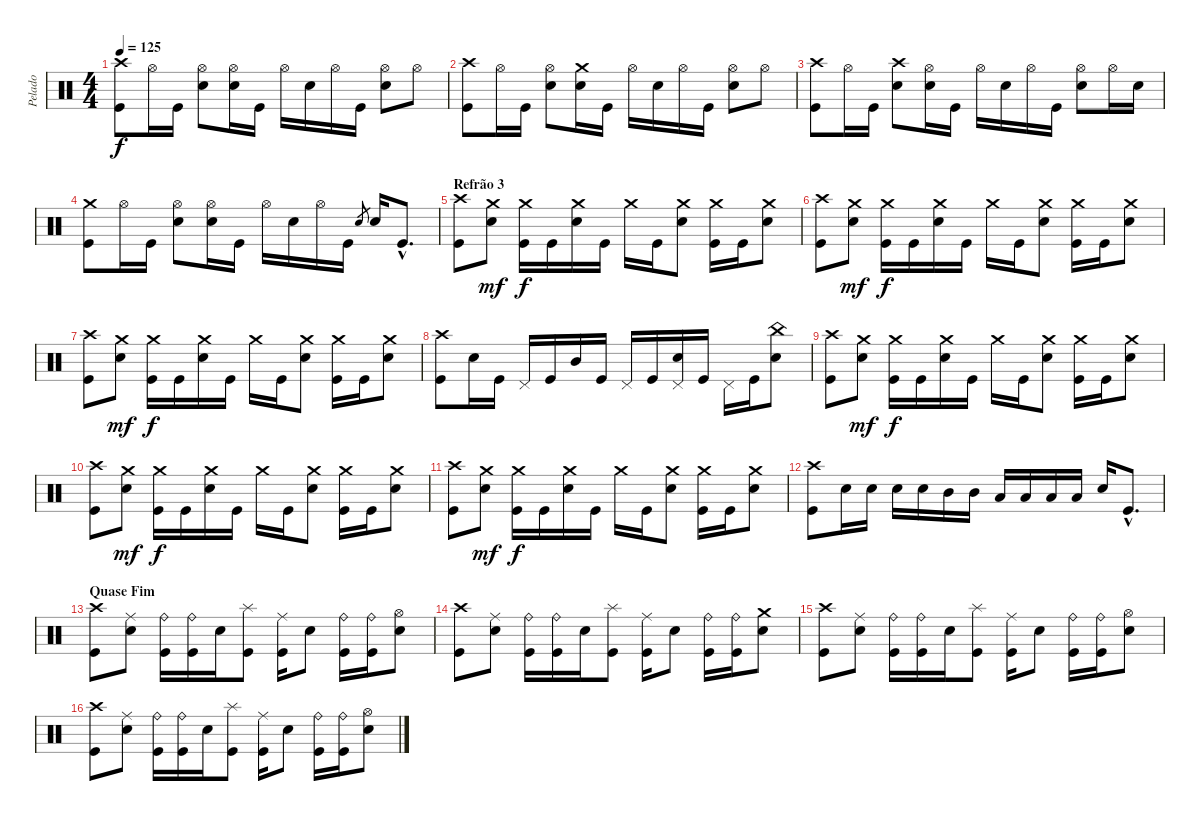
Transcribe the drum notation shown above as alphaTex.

\track ("Pelado" "Pelado") {instrument percussion}
\staff {score}
\articulation defaults
\ts (4 4)
\tempo 125
\clef neutral
\ks c
("Crash high (hit)" "Kick (hit)").8{dy f} "Hi-Hat (open)".16 "Kick (hit)".16 ("Hi-Hat (open)" "Electric Snare (hit)").8 ("Hi-Hat (open)" "Electric Snare (hit)").16 "Kick (hit)".16 "Hi-Hat (open)".16 "Electric Snare (hit)".16 "Hi-Hat (open)".16 "Kick (hit)".16 ("Hi-Hat (open)" "Electric Snare (hit)").8 "Hi-Hat (open)".8 |
("Crash high (hit)" "Kick (hit)").8 "Hi-Hat (open)".16 "Kick (hit)".16 ("Hi-Hat (open)" "Electric Snare (hit)").8 ("Crash medium (hit)" "Electric Snare (hit)").16 "Kick (hit)".16 "Hi-Hat (open)".16 "Electric Snare (hit)".16 "Hi-Hat (open)".16 "Kick (hit)".16 ("Hi-Hat (open)" "Electric Snare (hit)").8 "Hi-Hat (open)".8 |
("Crash high (hit)" "Kick (hit)").8 "Hi-Hat (open)".16 "Kick (hit)".16 ("Crash high (hit)" "Electric Snare (hit)").8 ("Hi-Hat (open)" "Electric Snare (hit)").16 "Kick (hit)".16 "Hi-Hat (open)".16 "Electric Snare (hit)".16 "Hi-Hat (open)".16 "Kick (hit)".16 ("Hi-Hat (open)" "Electric Snare (hit)").8 "Hi-Hat (open)".16 "Electric Snare (hit)".16 |
("Crash medium (hit)" "Kick (hit)").8 "Hi-Hat (open)".16 "Kick (hit)".16 ("Hi-Hat (open)" "Electric Snare (hit)").8 ("Hi-Hat (open)" "Electric Snare (hit)").16 "Kick (hit)".16 "Hi-Hat (open)".16 "Electric Snare (hit)".16 "Hi-Hat (open)".16 "Kick (hit)".16 "Electric Snare (hit)".8{gr} "Electric Snare (hit)".16 "Kick (hit)"{hac}.8{d} |
\section ("" "Refrão 3")
("Crash high (hit)" "Kick (hit)").8 ("Crash medium (hit)" "Electric Snare (hit)").8{dy mf} ("Crash medium (hit)" "Kick (hit)").16{dy f} "Kick (hit)".16 ("Crash medium (hit)" "Electric Snare (hit)").16 "Kick (hit)".16 "Crash medium (hit)".16 "Kick (hit)".16 ("Crash medium (hit)" "Electric Snare (hit)").8 ("Crash medium (hit)" "Kick (hit)").16 "Kick (hit)".16 ("Crash medium (hit)" "Electric Snare (hit)").8 |
("Crash high (hit)" "Kick (hit)").8 ("Crash medium (hit)" "Electric Snare (hit)").8{dy mf} ("Crash medium (hit)" "Kick (hit)").16{dy f} "Kick (hit)".16 ("Crash medium (hit)" "Electric Snare (hit)").16 "Kick (hit)".16 "Crash medium (hit)".16 "Kick (hit)".16 ("Crash medium (hit)" "Electric Snare (hit)").8 ("Crash medium (hit)" "Kick (hit)").16 "Kick (hit)".16 ("Crash medium (hit)" "Electric Snare (hit)").8 |
("Crash high (hit)" "Kick (hit)").8 ("Crash medium (hit)" "Electric Snare (hit)").8{dy mf} ("Crash medium (hit)" "Kick (hit)").16{dy f} "Kick (hit)".16 ("Crash medium (hit)" "Electric Snare (hit)").16 "Kick (hit)".16 "Crash medium (hit)".16 "Kick (hit)".16 ("Crash medium (hit)" "Electric Snare (hit)").8 ("Crash medium (hit)" "Kick (hit)").16 "Kick (hit)".16 ("Crash medium (hit)" "Electric Snare (hit)").8 |
("Crash high (hit)" "Kick (hit)").8 "Electric Snare (hit)".16 "Kick (hit)".16 "Pedal Hi-Hat (hit)".16 "Kick (hit)".16 "Mid Tom (hit)".16 "Kick (hit)".16 "Pedal Hi-Hat (hit)".16 "Kick (hit)".16 ("Electric Snare (hit)" "Pedal Hi-Hat (hit)").16 "Kick (hit)".16 "Pedal Hi-Hat (hit)".16 "Kick (hit)".16 ("China (hit)" "Electric Snare (hit)").8 |
("Crash high (hit)" "Kick (hit)").8 ("Crash medium (hit)" "Electric Snare (hit)").8{dy mf} ("Crash medium (hit)" "Kick (hit)").16{dy f} "Kick (hit)".16 ("Crash medium (hit)" "Electric Snare (hit)").16 "Kick (hit)".16 "Crash medium (hit)".16 "Kick (hit)".16 ("Crash medium (hit)" "Electric Snare (hit)").8 ("Crash medium (hit)" "Kick (hit)").16 "Kick (hit)".16 ("Crash medium (hit)" "Electric Snare (hit)").8 |
("Crash high (hit)" "Kick (hit)").8 ("Crash medium (hit)" "Electric Snare (hit)").8{dy mf} ("Crash medium (hit)" "Kick (hit)").16{dy f} "Kick (hit)".16 ("Crash medium (hit)" "Electric Snare (hit)").16 "Kick (hit)".16 "Crash medium (hit)".16 "Kick (hit)".16 ("Crash medium (hit)" "Electric Snare (hit)").8 ("Crash medium (hit)" "Kick (hit)").16 "Kick (hit)".16 ("Crash medium (hit)" "Electric Snare (hit)").8 |
("Crash high (hit)" "Kick (hit)").8 ("Crash medium (hit)" "Electric Snare (hit)").8{dy mf} ("Crash medium (hit)" "Kick (hit)").16{dy f} "Kick (hit)".16 ("Crash medium (hit)" "Electric Snare (hit)").16 "Kick (hit)".16 "Crash medium (hit)".16 "Kick (hit)".16 ("Crash medium (hit)" "Electric Snare (hit)").8 ("Crash medium (hit)" "Kick (hit)").16 "Kick (hit)".16 ("Crash medium (hit)" "Electric Snare (hit)").8 |
("Crash high (hit)" "Kick (hit)").8 "Electric Snare (hit)".16 "Electric Snare (hit)".16 "Electric Snare (hit)".16 "Electric Snare (hit)".16 "Mid Tom (hit)".16 "Mid Tom (hit)".16 "Low Tom (hit)".16 "Low Tom (hit)".16 "Low Tom (hit)".16 "Low Tom (hit)".16 "Electric Snare (hit)".16 "Kick (hit)"{hac}.8{d} |
\section ("" "Quase Fim")
("Crash high (hit)" "Kick (hit)").8 ("Ride (middle)" "Electric Snare (hit)").8 ("Ride (bell)" "Kick (hit)").16 ("Ride (bell)" "Kick (hit)").16 "Electric Snare (hit)".16 ("Splash (hit)" "Kick (hit)").8 ("Ride (middle)" "Kick (hit)").16 "Electric Snare (hit)".8 ("Ride (bell)" "Kick (hit)").16 ("Ride (bell)" "Kick (hit)").16 ("Hi-Hat (open)" "Electric Snare (hit)").8 |
("Crash high (hit)" "Kick (hit)").8 ("Ride (middle)" "Electric Snare (hit)").8 ("Ride (bell)" "Kick (hit)").16 ("Ride (bell)" "Kick (hit)").16 "Electric Snare (hit)".16 ("Splash (hit)" "Kick (hit)").8 ("Ride (middle)" "Kick (hit)").16 "Electric Snare (hit)".8 ("Ride (bell)" "Kick (hit)").16 ("Ride (bell)" "Kick (hit)").16 ("Crash medium (hit)" "Electric Snare (hit)").8 |
("Crash high (hit)" "Kick (hit)").8 ("Ride (middle)" "Electric Snare (hit)").8 ("Ride (bell)" "Kick (hit)").16 ("Ride (bell)" "Kick (hit)").16 "Electric Snare (hit)".16 ("Splash (hit)" "Kick (hit)").8 ("Ride (middle)" "Kick (hit)").16 "Electric Snare (hit)".8 ("Ride (bell)" "Kick (hit)").16 ("Ride (bell)" "Kick (hit)").16 ("Hi-Hat (open)" "Electric Snare (hit)").8 |
("Crash high (hit)" "Kick (hit)").8 ("Ride (middle)" "Electric Snare (hit)").8 ("Ride (bell)" "Kick (hit)").16 ("Ride (bell)" "Kick (hit)").16 "Electric Snare (hit)".16 ("Splash (hit)" "Kick (hit)").8 ("Ride (middle)" "Kick (hit)").16 "Electric Snare (hit)".8 ("Ride (bell)" "Kick (hit)").16 ("Ride (bell)" "Kick (hit)").16 ("Hi-Hat (open)" "Electric Snare (hit)").8
